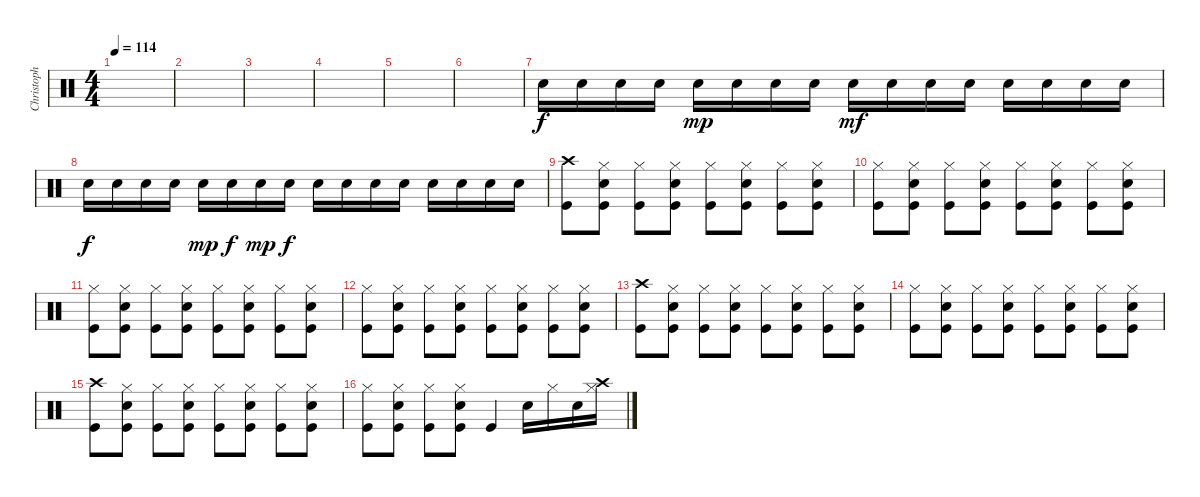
\track ("Christoph - Drums" "Christoph ") {instrument percussion}
\staff {score}
\articulation defaults
\ts (4 4)
\tempo 114
\clef neutral
\ks c
|
|
|
|
|
|
"Snare (hit) 2".16 "Snare (hit) 2".16 "Snare (hit) 2".16 "Snare (hit) 2".16 "Snare (hit) 2".16{dy mp} "Snare (hit) 2".16 "Snare (hit) 2".16 "Snare (hit) 2".16 "Snare (hit) 2".16{dy mf} "Snare (hit) 2".16 "Snare (hit) 2".16 "Snare (hit) 2".16 "Snare (hit) 2".16 "Snare (hit) 2".16 "Snare (hit) 2".16 "Snare (hit) 2".16 |
"Snare (hit) 2".16{dy f} "Snare (hit) 2".16 "Snare (hit) 2".16 "Snare (hit) 2".16 "Snare (hit) 2".16{dy mp} "Snare (hit) 2".16{dy f} "Snare (hit) 2".16{dy mp} "Snare (hit) 2".16{dy f} "Snare (hit) 2".16 "Snare (hit) 2".16 "Snare (hit) 2".16 "Snare (hit) 2".16 "Snare (hit) 2".16 "Snare (hit) 2".16 "Snare (hit) 2".16 "Snare (hit) 2".16 |
("Crash high (hit)" "Kick (hit)").8 ("Hi-Hat (closed)" "Snare (hit) 2" "Kick (hit)").8 ("Hi-Hat (closed)" "Kick (hit)").8 ("Hi-Hat (closed)" "Snare (hit) 2" "Kick (hit)").8 ("Hi-Hat (closed)" "Kick (hit)").8 ("Hi-Hat (closed)" "Snare (hit) 2" "Kick (hit)").8 ("Hi-Hat (closed)" "Kick (hit)").8 ("Hi-Hat (closed)" "Snare (hit) 2" "Kick (hit)").8 |
("Hi-Hat (closed)" "Kick (hit)").8 ("Hi-Hat (closed)" "Snare (hit) 2" "Kick (hit)").8 ("Hi-Hat (closed)" "Kick (hit)").8 ("Hi-Hat (closed)" "Snare (hit) 2" "Kick (hit)").8 ("Hi-Hat (closed)" "Kick (hit)").8 ("Hi-Hat (closed)" "Snare (hit) 2" "Kick (hit)").8 ("Hi-Hat (closed)" "Kick (hit)").8 ("Hi-Hat (closed)" "Snare (hit) 2" "Kick (hit)").8 |
("Hi-Hat (closed)" "Kick (hit)").8 ("Hi-Hat (closed)" "Snare (hit) 2" "Kick (hit)").8 ("Hi-Hat (closed)" "Kick (hit)").8 ("Hi-Hat (closed)" "Snare (hit) 2" "Kick (hit)").8 ("Hi-Hat (closed)" "Kick (hit)").8 ("Hi-Hat (closed)" "Snare (hit) 2" "Kick (hit)").8 ("Hi-Hat (closed)" "Kick (hit)").8 ("Hi-Hat (closed)" "Snare (hit) 2" "Kick (hit)").8 |
("Hi-Hat (closed)" "Kick (hit)").8 ("Hi-Hat (closed)" "Snare (hit) 2" "Kick (hit)").8 ("Hi-Hat (closed)" "Kick (hit)").8 ("Hi-Hat (closed)" "Snare (hit) 2" "Kick (hit)").8 ("Hi-Hat (closed)" "Kick (hit)").8 ("Hi-Hat (closed)" "Snare (hit) 2" "Kick (hit)").8 ("Hi-Hat (closed)" "Kick (hit)").8 ("Hi-Hat (closed)" "Snare (hit) 2" "Kick (hit)").8 |
("Crash high (hit)" "Kick (hit)").8 ("Hi-Hat (closed)" "Snare (hit) 2" "Kick (hit)").8 ("Hi-Hat (closed)" "Kick (hit)").8 ("Hi-Hat (closed)" "Snare (hit) 2" "Kick (hit)").8 ("Hi-Hat (closed)" "Kick (hit)").8 ("Hi-Hat (closed)" "Snare (hit) 2" "Kick (hit)").8 ("Hi-Hat (closed)" "Kick (hit)").8 ("Hi-Hat (closed)" "Snare (hit) 2" "Kick (hit)").8 |
("Hi-Hat (closed)" "Kick (hit)").8 ("Hi-Hat (closed)" "Snare (hit) 2" "Kick (hit)").8 ("Hi-Hat (closed)" "Kick (hit)").8 ("Hi-Hat (closed)" "Snare (hit) 2" "Kick (hit)").8 ("Hi-Hat (closed)" "Kick (hit)").8 ("Hi-Hat (closed)" "Snare (hit) 2" "Kick (hit)").8 ("Hi-Hat (closed)" "Kick (hit)").8 ("Hi-Hat (closed)" "Snare (hit) 2" "Kick (hit)").8 |
("Crash high (hit)" "Kick (hit)").8 ("Hi-Hat (closed)" "Snare (hit) 2" "Kick (hit)").8 ("Hi-Hat (closed)" "Kick (hit)").8 ("Hi-Hat (closed)" "Snare (hit) 2" "Kick (hit)").8 ("Hi-Hat (closed)" "Kick (hit)").8 ("Hi-Hat (closed)" "Snare (hit) 2" "Kick (hit)").8 ("Hi-Hat (closed)" "Kick (hit)").8 ("Hi-Hat (closed)" "Snare (hit) 2" "Kick (hit)").8 |
("Hi-Hat (closed)" "Kick (hit)").8 ("Hi-Hat (closed)" "Snare (hit) 2" "Kick (hit)").8 ("Hi-Hat (closed)" "Kick (hit)").8 ("Hi-Hat (closed)" "Snare (hit) 2" "Kick (hit)").8 "Kick (hit)".4 "Snare (hit) 2".16 "Hi-Hat (closed)".16 "Snare (hit) 2".16 ("Crash high (hit)" "Hi-Hat (closed)").16
